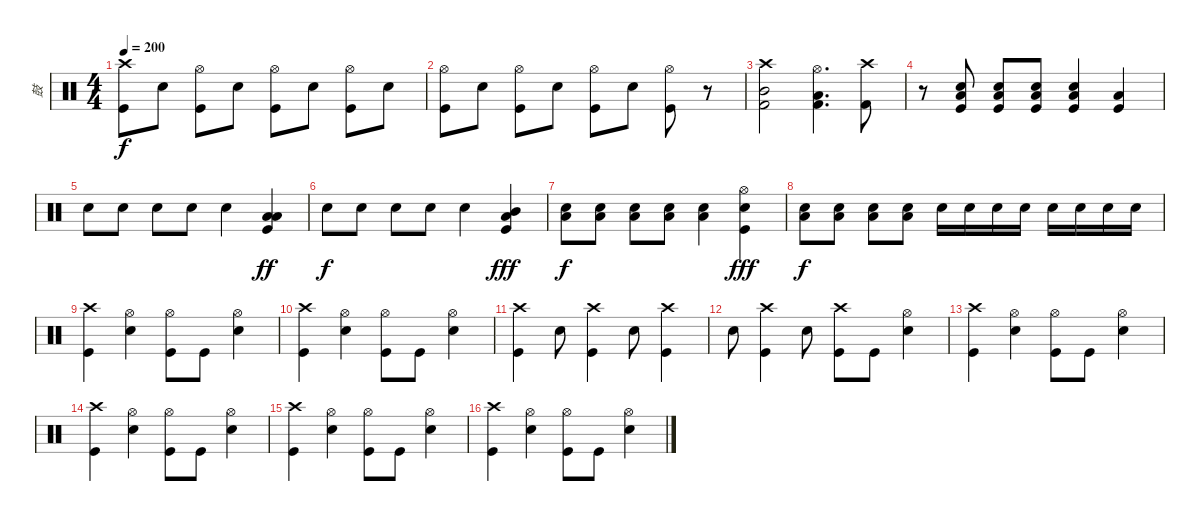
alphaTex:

\track ("鼓" "鼓") {instrument percussion}
\staff {score}
\articulation defaults
\ts (4 4)
\tempo 200
\clef neutral
\ks c
("Crash high (hit)" "Kick (hit)").8{dy f} "Snare (hit) 2".8 ("Hi-Hat (open)" "Kick (hit)").8 "Snare (hit) 2".8 ("Hi-Hat (open)" "Kick (hit)").8 "Snare (hit) 2".8 ("Hi-Hat (open)" "Kick (hit)").8 "Snare (hit) 2".8 |
("Hi-Hat (open)" "Kick (hit)").8 "Snare (hit) 2".8 ("Hi-Hat (open)" "Kick (hit)").8 "Snare (hit) 2".8 ("Hi-Hat (open)" "Kick (hit)").8 "Snare (hit) 2".8 ("Hi-Hat (open)" "Kick (hit)").8 r.8 |
("Crash high (hit)" "Mid Tom (hit)" "Kick (hit) 2").2 ("Hi-Hat (open)" "Low Tom (hit)" "Kick (hit) 2").4{d} ("Crash high (hit)" "Kick (hit) 2").8 |
r.8 ("Low Floor Tom (hit)" "Snare (hit) 2" "Kick (hit)").8 ("Low Floor Tom (hit)" "Snare (hit) 2" "Kick (hit)").8 ("Low Floor Tom (hit)" "Snare (hit) 2" "Kick (hit)").8 ("Low Floor Tom (hit)" "Snare (hit) 2" "Kick (hit)").4 ("Low Tom (hit)" "Kick (hit)").4 |
"Snare (hit) 2".8 "Snare (hit) 2".8 "Snare (hit) 2".8 "Snare (hit) 2".8 "Snare (hit) 2".4 ("Low Floor Tom (hit)" "Low Tom (hit)" "Kick (hit)").4{dy ff} |
"Snare (hit) 2".8{dy f} "Snare (hit) 2".8 "Snare (hit) 2".8 "Snare (hit) 2".8 "Snare (hit) 2".4 ("Mid Tom (hit)" "Low Floor Tom (hit)" "Kick (hit)").4{dy fff} |
("Snare (hit) 2" "Low Tom (hit)").8{dy f} ("Snare (hit) 2" "Low Tom (hit)").8 ("Snare (hit) 2" "Low Tom (hit)").8 ("Snare (hit) 2" "Low Tom (hit)").8 ("Snare (hit) 2" "Low Tom (hit)").4 ("Hi-Hat (open)" "Snare (hit) 2" "Kick (hit)").4{dy fff} |
("Snare (hit) 2" "Low Floor Tom (hit)").8{dy f} ("Snare (hit) 2" "Low Floor Tom (hit)").8 ("Snare (hit) 2" "Low Floor Tom (hit)").8 ("Snare (hit) 2" "Low Floor Tom (hit)").8 "Snare (hit) 2".16 "Snare (hit) 2".16 "Snare (hit) 2".16 "Snare (hit) 2".16 "Snare (hit) 2".16 "Snare (hit) 2".16 "Snare (hit) 2".16 "Snare (hit) 2".16 |
("Crash high (hit)" "Kick (hit)").4 ("Hi-Hat (open)" "Snare (hit) 2").4 ("Hi-Hat (open)" "Kick (hit)").8 "Kick (hit)".8 ("Hi-Hat (open)" "Snare (hit) 2").4 |
("Crash high (hit)" "Kick (hit)").4 ("Hi-Hat (open)" "Snare (hit) 2").4 ("Hi-Hat (open)" "Kick (hit)").8 "Kick (hit)".8 ("Hi-Hat (open)" "Snare (hit) 2").4 |
("Crash high (hit)" "Kick (hit)").4 "Snare (hit) 2".8 ("Crash high (hit)" "Kick (hit)").4 "Snare (hit) 2".8 ("Crash high (hit)" "Kick (hit)").4 |
"Snare (hit) 2".8 ("Crash high (hit)" "Kick (hit)").4 "Snare (hit) 2".8 ("Crash high (hit)" "Kick (hit)").8 "Kick (hit)".8 ("Hi-Hat (open)" "Snare (hit) 2").4 |
("Crash high (hit)" "Kick (hit)").4 ("Hi-Hat (open)" "Snare (hit) 2").4 ("Hi-Hat (open)" "Kick (hit)").8 "Kick (hit)".8 ("Hi-Hat (open)" "Snare (hit) 2").4 |
("Crash high (hit)" "Kick (hit)").4 ("Hi-Hat (open)" "Snare (hit) 2").4 ("Hi-Hat (open)" "Kick (hit)").8 "Kick (hit)".8 ("Hi-Hat (open)" "Snare (hit) 2").4 |
("Crash high (hit)" "Kick (hit)").4 ("Hi-Hat (open)" "Snare (hit) 2").4 ("Hi-Hat (open)" "Kick (hit)").8 "Kick (hit)".8 ("Hi-Hat (open)" "Snare (hit) 2").4 |
("Crash high (hit)" "Kick (hit)").4 ("Hi-Hat (open)" "Snare (hit) 2").4 ("Hi-Hat (open)" "Kick (hit)").8 "Kick (hit)".8 ("Hi-Hat (open)" "Snare (hit) 2").4
